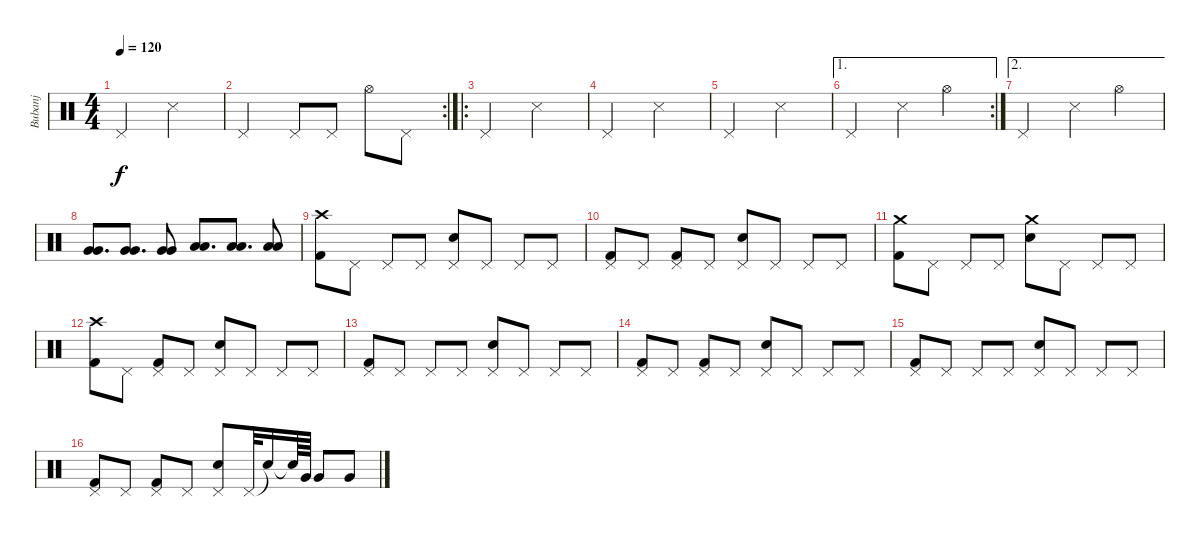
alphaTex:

\track ("Bubanj" "Bubanj") {instrument percussion}
\staff {score}
\articulation defaults
\ts (4 4)
\tempo 120
\clef neutral
\ks c "Pedal Hi-Hat (hit)".2{dy f} "Snare (side stick) 3".2
|
\rc 2 "Pedal Hi-Hat (hit)".2 "Pedal Hi-Hat (hit)".8 "Pedal Hi-Hat (hit)".8 "Hi-Hat (open)".8 "Pedal Hi-Hat (hit)".8
|
\ro "Pedal Hi-Hat (hit)".2 "Snare (side stick) 3".2
|
"Pedal Hi-Hat (hit)".2 "Snare (side stick) 3".2 |
"Pedal Hi-Hat (hit)".2 "Snare (side stick) 3".2 |
\ae 1
\rc 2 "Pedal Hi-Hat (hit)".2 "Snare (side stick) 3".4 "Hi-Hat (open)".4
|
\ae 2 "Pedal Hi-Hat (hit)".2 "Snare (side stick) 3".4 "Hi-Hat (open)".4
|
("Very Low Tom (hit)" "Very Low Tom (hit)").8{d} ("Very Low Tom (hit)" "Very Low Tom (hit)").8{d} ("Very Low Tom (hit)" "Very Low Tom (hit)").8 ("Low Floor Tom (hit)" "Low Floor Tom (hit)").8{d} ("Low Floor Tom (hit)" "Low Floor Tom (hit)").8{d} ("Low Floor Tom (hit)" "Low Floor Tom (hit)").8 |
("Crash high (hit)" "Kick (hit) 2").8 "Pedal Hi-Hat (hit)".8 "Pedal Hi-Hat (hit)".8 "Pedal Hi-Hat (hit)".8 ("Pedal Hi-Hat (hit)" "Snare (hit) 2").8 "Pedal Hi-Hat (hit)".8 "Pedal Hi-Hat (hit)".8 "Pedal Hi-Hat (hit)".8 |
("Pedal Hi-Hat (hit)" "Kick (hit) 2").8 "Pedal Hi-Hat (hit)".8 ("Pedal Hi-Hat (hit)" "Kick (hit) 2").8 "Pedal Hi-Hat (hit)".8 ("Pedal Hi-Hat (hit)" "Snare (hit) 2").8 "Pedal Hi-Hat (hit)".8 "Pedal Hi-Hat (hit)".8 "Pedal Hi-Hat (hit)".8 |
("Crash medium (hit)" "Kick (hit) 2").8 "Pedal Hi-Hat (hit)".8 "Pedal Hi-Hat (hit)".8 "Pedal Hi-Hat (hit)".8 ("Crash medium (hit)" "Snare (hit) 2").8 "Pedal Hi-Hat (hit)".8 "Pedal Hi-Hat (hit)".8 "Pedal Hi-Hat (hit)".8 |
("Crash high (hit)" "Kick (hit) 2").8 "Pedal Hi-Hat (hit)".8 ("Pedal Hi-Hat (hit)" "Kick (hit) 2").8 "Pedal Hi-Hat (hit)".8 ("Pedal Hi-Hat (hit)" "Snare (hit) 2").8 "Pedal Hi-Hat (hit)".8 "Pedal Hi-Hat (hit)".8 "Pedal Hi-Hat (hit)".8 |
("Pedal Hi-Hat (hit)" "Kick (hit) 2").8 "Pedal Hi-Hat (hit)".8 "Pedal Hi-Hat (hit)".8 "Pedal Hi-Hat (hit)".8 ("Pedal Hi-Hat (hit)" "Snare (hit) 2").8 "Pedal Hi-Hat (hit)".8 "Pedal Hi-Hat (hit)".8 "Pedal Hi-Hat (hit)".8 |
("Pedal Hi-Hat (hit)" "Kick (hit) 2").8 "Pedal Hi-Hat (hit)".8 ("Pedal Hi-Hat (hit)" "Kick (hit) 2").8 "Pedal Hi-Hat (hit)".8 ("Pedal Hi-Hat (hit)" "Snare (hit) 2").8 "Pedal Hi-Hat (hit)".8 "Pedal Hi-Hat (hit)".8 "Pedal Hi-Hat (hit)".8 |
("Pedal Hi-Hat (hit)" "Kick (hit) 2").8 "Pedal Hi-Hat (hit)".8 "Pedal Hi-Hat (hit)".8 "Pedal Hi-Hat (hit)".8 ("Pedal Hi-Hat (hit)" "Snare (hit) 2").8 "Pedal Hi-Hat (hit)".8 "Pedal Hi-Hat (hit)".8 "Pedal Hi-Hat (hit)".8 |
("Pedal Hi-Hat (hit)" "Kick (hit) 2").8 "Pedal Hi-Hat (hit)".8 ("Pedal Hi-Hat (hit)" "Kick (hit) 2").8 "Pedal Hi-Hat (hit)".8 ("Pedal Hi-Hat (hit)" "Snare (hit) 2").8 "Pedal Hi-Hat (hit)".32 "Snare (hit)"{t}.16 "Snare (hit)"{t}.64 "Very Low Tom (hit)".64 "Very Low Tom (hit)".8 "Very Low Tom (hit)".8
